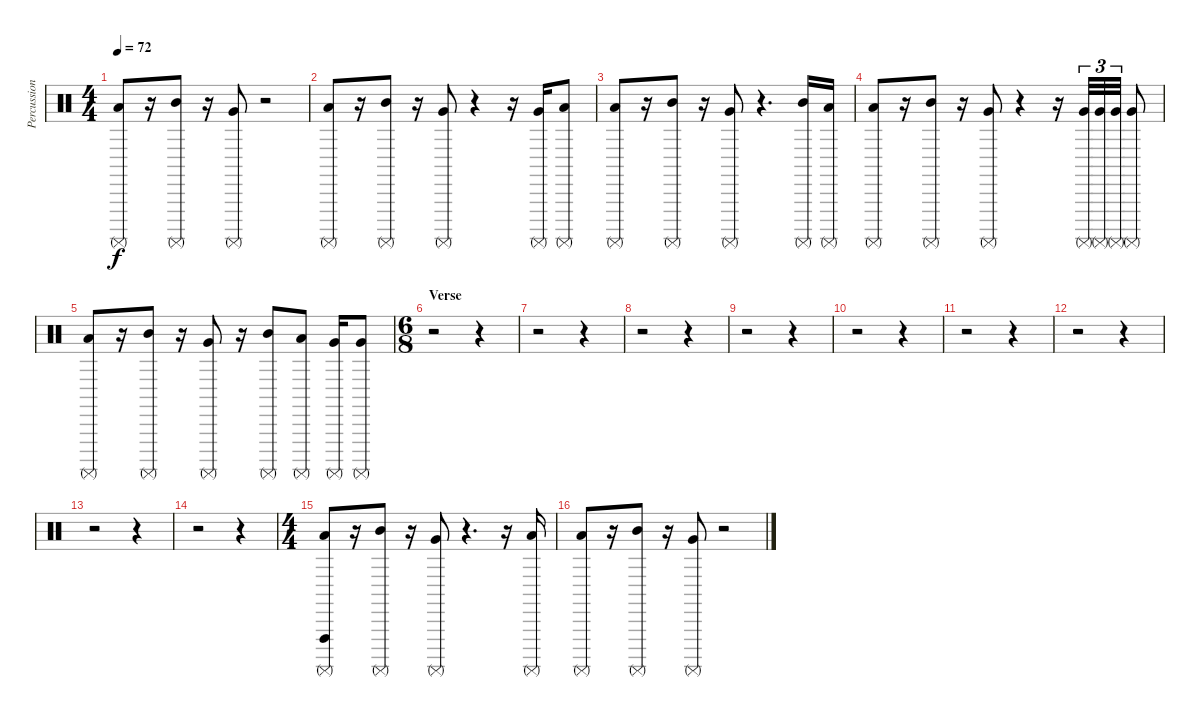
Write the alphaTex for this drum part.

\track ("Percussion" "Percussion") {instrument percussion}
\staff {score}
\articulation defaults
\ts (4 4)
\tempo 72
\clef neutral
\ks c
("Low Tom (hit)" "Surdo (mute)").8{dy f} r.16 ("Mid Tom (hit)" "Surdo (mute)").8 r.16 ("Very Low Tom (hit)" "Surdo (mute)").8 r.2 |
("Low Tom (hit)" "Surdo (mute)").8 r.16 ("Mid Tom (hit)" "Surdo (mute)").8 r.16 ("Very Low Tom (hit)" "Surdo (mute)").8 r.4 r.16 ("Very Low Tom (hit)" "Surdo (mute)").16 ("Low Tom (hit)" "Surdo (mute)").8 |
("Low Tom (hit)" "Surdo (mute)").8 r.16 ("Mid Tom (hit)" "Surdo (mute)").8 r.16 ("Very Low Tom (hit)" "Surdo (mute)").8 r.4{d} ("Mid Tom (hit)" "Surdo (mute)").16 ("Low Tom (hit)" "Surdo (mute)").16 |
("Low Tom (hit)" "Surdo (mute)").8 r.16 ("Mid Tom (hit)" "Surdo (mute)").8 r.16 ("Very Low Tom (hit)" "Surdo (mute)").8 r.4 r.16 ("Very Low Tom (hit)" "Surdo (mute)").32{tu (3 2)} ("Very Low Tom (hit)" "Surdo (mute)").32{tu (3 2)} ("Very Low Tom (hit)" "Surdo (mute)").32{tu (3 2)} ("Very Low Tom (hit)" "Surdo (mute)").8 |
("Low Tom (hit)" "Surdo (mute)").8 r.16 ("Mid Tom (hit)" "Surdo (mute)").8 r.16 ("Very Low Tom (hit)" "Surdo (mute)").8 r.16 ("Mid Tom (hit)" "Surdo (mute)").8 ("Low Tom (hit)" "Surdo (mute)").8 ("Very Low Tom (hit)" "Surdo (mute)").16 ("Very Low Tom (hit)" "Surdo (mute)").8 |
\ts (6 8)
\section ("" "Verse")
r.2 r.4 |
r.2 r.4 |
r.2 r.4 |
r.2 r.4 |
r.2 r.4 |
r.2 r.4 |
r.2 r.4 |
r.2 r.4 |
r.2 r.4 |
\ts (4 4)
\section ("" "")
("Vibraslap (hit)" "Low Tom (hit)" "Surdo (mute)").8 r.16 ("Mid Tom (hit)" "Surdo (mute)").8 r.16 ("Very Low Tom (hit)" "Surdo (mute)").8 r.4{d} r.16 ("Low Tom (hit)" "Surdo (mute)").16 |
("Low Tom (hit)" "Surdo (mute)").8 r.16 ("Mid Tom (hit)" "Surdo (mute)").8 r.16 ("Very Low Tom (hit)" "Surdo (mute)").8 r.2
